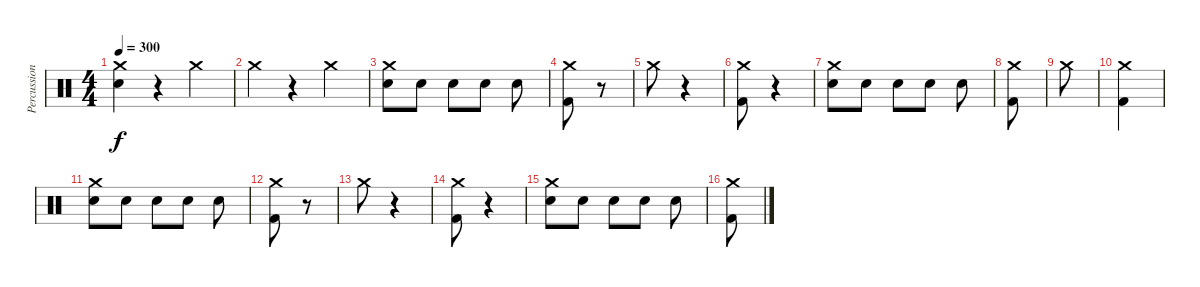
\track ("Percussion" "Percussion") {instrument percussion}
\staff {score}
\articulation defaults
\ts (4 4)
\tempo 300
\clef neutral
\ks c
("Snare (hit) 2" "Crash medium (hit)").4{dy f} r.4 "Crash medium (hit)".4 |
"Crash medium (hit)".4 r.4 "Crash medium (hit)".4 |
("Snare (hit) 2" "Crash medium (hit)").8 "Snare (hit) 2".8 "Snare (hit) 2".8 "Snare (hit) 2".8 "Snare (hit) 2".8 |
("Kick (hit) 2" "Crash medium (hit)").8 r.8 |
"Crash medium (hit)".8 r.4 |
("Kick (hit) 2" "Crash medium (hit)").8 r.4 |
("Snare (hit) 2" "Crash medium (hit)").8 "Snare (hit) 2".8 "Snare (hit) 2".8 "Snare (hit) 2".8 "Snare (hit) 2".8 |
("Kick (hit) 2" "Crash medium (hit)").8 |
"Crash medium (hit)".8 |
("Kick (hit) 2" "Crash medium (hit)").4 |
("Snare (hit) 2" "Crash medium (hit)").8 "Snare (hit) 2".8 "Snare (hit) 2".8 "Snare (hit) 2".8 "Snare (hit) 2".8 |
("Kick (hit) 2" "Crash medium (hit)").8 r.8 |
"Crash medium (hit)".8 r.4 |
("Kick (hit) 2" "Crash medium (hit)").8 r.4 |
("Snare (hit) 2" "Crash medium (hit)").8 "Snare (hit) 2".8 "Snare (hit) 2".8 "Snare (hit) 2".8 "Snare (hit) 2".8 |
("Kick (hit) 2" "Crash medium (hit)").8
